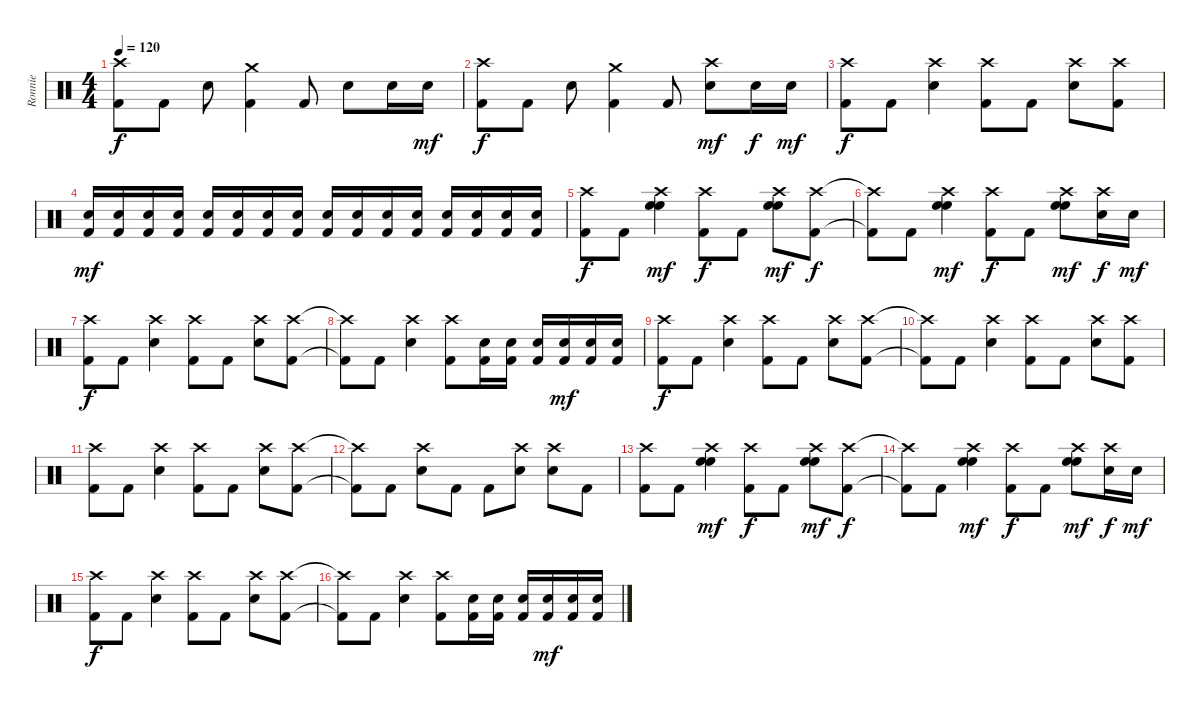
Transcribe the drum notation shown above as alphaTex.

\track ("Ronnie" "Ronnie") {instrument percussion}
\staff {score}
\articulation defaults
\ts (4 4)
\tempo 120
\clef neutral
\ks c
("Crash high (hit)" "Kick (hit) 2").8{dy f} "Kick (hit) 2".8 "Snare (hit) 2".8 ("Crash medium (hit)" "Kick (hit) 2").4 "Kick (hit) 2".8 "Snare (hit) 2".8 "Snare (hit) 2".16 "Snare (hit) 2".16{dy mf} |
("Crash high (hit)" "Kick (hit) 2").8{dy f} "Kick (hit) 2".8 "Snare (hit) 2".8 ("Crash medium (hit)" "Kick (hit) 2").4 "Kick (hit) 2".8 ("Crash high (hit)" "Snare (hit) 2").8{dy mf} "Snare (hit) 2".16{dy f} "Snare (hit) 2".16{dy mf} |
("Crash high (hit)" "Kick (hit) 2").8{dy f} "Kick (hit) 2".8 ("Crash high (hit)" "Snare (hit) 2").4 ("Crash high (hit)" "Kick (hit) 2").8 "Kick (hit) 2".8 ("Crash high (hit)" "Snare (hit) 2").8 ("Crash high (hit)" "Kick (hit) 2").8 |
("Snare (hit) 2" "Kick (hit) 2").16{dy mf} ("Snare (hit) 2" "Kick (hit) 2").16 ("Snare (hit) 2" "Kick (hit) 2").16 ("Snare (hit) 2" "Kick (hit) 2").16 ("Snare (hit) 2" "Kick (hit) 2").16 ("Snare (hit) 2" "Kick (hit) 2").16 ("Snare (hit) 2" "Kick (hit) 2").16 ("Snare (hit) 2" "Kick (hit) 2").16 ("Snare (hit) 2" "Kick (hit) 2").16 ("Snare (hit) 2" "Kick (hit) 2").16 ("Snare (hit) 2" "Kick (hit) 2").16 ("Snare (hit) 2" "Kick (hit) 2").16 ("Snare (hit) 2" "Kick (hit) 2").16 ("Snare (hit) 2" "Kick (hit) 2").16 ("Snare (hit) 2" "Kick (hit) 2").16 ("Snare (hit) 2" "Kick (hit) 2").16 |
("Crash high (hit)" "Kick (hit) 2").8{dy f} "Kick (hit) 2".8 ("Crash high (hit)" "High Floor Tom (hit)" "High Floor Tom (hit)").4{dy mf} ("Crash high (hit)" "Kick (hit) 2").8{dy f} "Kick (hit) 2".8 ("Crash high (hit)" "High Floor Tom (hit)" "High Floor Tom (hit)").8{dy mf} ("Crash high (hit)" "Kick (hit) 2").8{dy f} |
("Crash high (hit)"{t} "Kick (hit) 2"{t}).8 "Kick (hit) 2".8 ("Crash high (hit)" "High Floor Tom (hit)" "High Floor Tom (hit)").4{dy mf} ("Crash high (hit)" "Kick (hit) 2").8{dy f} "Kick (hit) 2".8 ("Crash high (hit)" "High Floor Tom (hit)" "High Floor Tom (hit)").8{dy mf} ("Crash high (hit)" "Snare (hit) 2").16{dy f} "Snare (hit) 2".16{dy mf} |
("Crash high (hit)" "Kick (hit) 2").8{dy f} "Kick (hit) 2".8 ("Crash high (hit)" "Snare (hit) 2").4 ("Crash high (hit)" "Kick (hit) 2").8 "Kick (hit) 2".8 ("Crash high (hit)" "Snare (hit) 2").8 ("Crash high (hit)" "Kick (hit) 2").8 |
("Crash high (hit)"{t} "Kick (hit) 2"{t}).8 "Kick (hit) 2".8 ("Crash high (hit)" "Snare (hit) 2").4 ("Crash high (hit)" "Kick (hit) 2").8 ("Kick (hit) 2" "Snare (hit) 2").16 ("Kick (hit) 2" "Snare (hit) 2").16 ("Kick (hit) 2" "Snare (hit) 2").16 ("Kick (hit) 2" "Snare (hit) 2").16{dy mf} ("Kick (hit) 2" "Snare (hit) 2").16 ("Kick (hit) 2" "Snare (hit) 2").16 |
("Crash high (hit)" "Kick (hit) 2").8{dy f} "Kick (hit) 2".8 ("Crash high (hit)" "Snare (hit) 2").4 ("Crash high (hit)" "Kick (hit) 2").8 "Kick (hit) 2".8 ("Crash high (hit)" "Snare (hit) 2").8 ("Crash high (hit)" "Kick (hit) 2").8 |
("Crash high (hit)"{t} "Kick (hit) 2"{t}).8 "Kick (hit) 2".8 ("Crash high (hit)" "Snare (hit) 2").4 ("Crash high (hit)" "Kick (hit) 2").8 "Kick (hit) 2".8 ("Crash high (hit)" "Snare (hit) 2").8 ("Crash high (hit)" "Kick (hit) 2").8 |
("Crash high (hit)" "Kick (hit) 2").8 "Kick (hit) 2".8 ("Crash high (hit)" "Snare (hit) 2").4 ("Crash high (hit)" "Kick (hit) 2").8 "Kick (hit) 2".8 ("Crash high (hit)" "Snare (hit) 2").8 ("Crash high (hit)" "Kick (hit) 2").8 |
("Crash high (hit)"{t} "Kick (hit) 2"{t}).8 "Kick (hit) 2".8 ("Crash high (hit)" "Snare (hit) 2").8 "Kick (hit) 2".8 "Kick (hit) 2".8 ("Crash high (hit)" "Snare (hit) 2").8 ("Crash high (hit)" "Snare (hit) 2").8 "Kick (hit) 2".8 |
("Crash high (hit)" "Kick (hit) 2").8 "Kick (hit) 2".8 ("Crash high (hit)" "High Floor Tom (hit)" "High Floor Tom (hit)").4{dy mf} ("Crash high (hit)" "Kick (hit) 2").8{dy f} "Kick (hit) 2".8 ("Crash high (hit)" "High Floor Tom (hit)" "High Floor Tom (hit)").8{dy mf} ("Crash high (hit)" "Kick (hit) 2").8{dy f} |
("Crash high (hit)"{t} "Kick (hit) 2"{t}).8 "Kick (hit) 2".8 ("Crash high (hit)" "High Floor Tom (hit)" "High Floor Tom (hit)").4{dy mf} ("Crash high (hit)" "Kick (hit) 2").8{dy f} "Kick (hit) 2".8 ("Crash high (hit)" "High Floor Tom (hit)" "High Floor Tom (hit)").8{dy mf} ("Crash high (hit)" "Snare (hit) 2").16{dy f} "Snare (hit) 2".16{dy mf} |
("Crash high (hit)" "Kick (hit) 2").8{dy f} "Kick (hit) 2".8 ("Crash high (hit)" "Snare (hit) 2").4 ("Crash high (hit)" "Kick (hit) 2").8 "Kick (hit) 2".8 ("Crash high (hit)" "Snare (hit) 2").8 ("Crash high (hit)" "Kick (hit) 2").8 |
("Crash high (hit)"{t} "Kick (hit) 2"{t}).8 "Kick (hit) 2".8 ("Crash high (hit)" "Snare (hit) 2").4 ("Crash high (hit)" "Kick (hit) 2").8 ("Kick (hit) 2" "Snare (hit) 2").16 ("Kick (hit) 2" "Snare (hit) 2").16 ("Kick (hit) 2" "Snare (hit) 2").16 ("Kick (hit) 2" "Snare (hit) 2").16{dy mf} ("Kick (hit) 2" "Snare (hit) 2").16 ("Kick (hit) 2" "Snare (hit) 2").16
